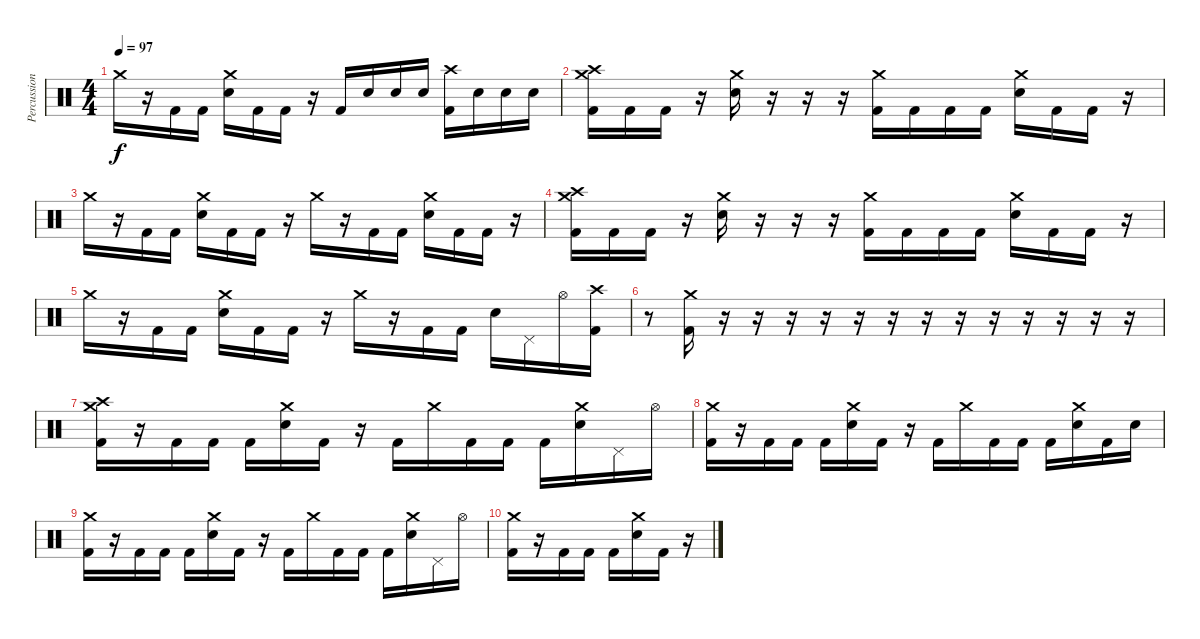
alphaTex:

\track ("Percussion" "Percussion") {instrument percussion}
\staff {score}
\articulation defaults
\ts (4 4)
\tempo 97
\clef neutral
\ks c "Crash medium (hit)".16{dy f}
r.16 "Kick (hit) 2".16 "Kick (hit) 2".16 ("Crash medium (hit)" "Snare (hit) 2").16 "Kick (hit) 2".16 "Kick (hit) 2".16 r.16 "Kick (hit) 2".16 "Snare (hit) 2".16 "Snare (hit) 2".16 "Snare (hit) 2".16 ("Crash high (hit)" "Kick (hit) 2").16 "Snare (hit) 2".16 "Snare (hit) 2".16 "Snare (hit) 2".16 |
("Crash medium (hit)" "Crash high (hit)" "Kick (hit) 2").16 "Kick (hit) 2".16 "Kick (hit) 2".16 r.16 ("Crash medium (hit)" "Snare (hit) 2").16 r.16 r.16 r.16 ("Crash medium (hit)" "Kick (hit) 2").16 "Kick (hit) 2".16 "Kick (hit) 2".16 "Kick (hit) 2".16 ("Crash medium (hit)" "Snare (hit) 2").16 "Kick (hit) 2".16 "Kick (hit) 2".16 r.16 |
"Crash medium (hit)".16 r.16 "Kick (hit) 2".16 "Kick (hit) 2".16 ("Crash medium (hit)" "Snare (hit) 2").16 "Kick (hit) 2".16 "Kick (hit) 2".16 r.16 "Crash medium (hit)".16 r.16 "Kick (hit) 2".16 "Kick (hit) 2".16 ("Crash medium (hit)" "Snare (hit) 2").16 "Kick (hit) 2".16 "Kick (hit) 2".16 r.16 |
("Crash medium (hit)" "Crash high (hit)" "Kick (hit) 2").16 "Kick (hit) 2".16 "Kick (hit) 2".16 r.16 ("Crash medium (hit)" "Snare (hit) 2").16 r.16 r.16 r.16 ("Crash medium (hit)" "Kick (hit) 2").16 "Kick (hit) 2".16 "Kick (hit) 2".16 "Kick (hit) 2".16 ("Crash medium (hit)" "Snare (hit) 2").16 "Kick (hit) 2".16 "Kick (hit) 2".16 r.16 |
"Crash medium (hit)".16 r.16 "Kick (hit) 2".16 "Kick (hit) 2".16 ("Crash medium (hit)" "Snare (hit) 2").16 "Kick (hit) 2".16 "Kick (hit) 2".16 r.16 "Crash medium (hit)".16 r.16 "Kick (hit) 2".16 "Kick (hit) 2".16 "Snare (hit) 2".16 "Pedal Hi-Hat (hit)".16 "Hi-Hat (open)".16 ("Crash high (hit)" "Kick (hit) 2").16 |
r.8 ("Crash medium (hit)" "Kick (hit) 2").16 r.16 r.16 r.16 r.16 r.16 r.16 r.16 r.16 r.16 r.16 r.16 r.16 r.16 |
("Crash medium (hit)" "Crash high (hit)" "Kick (hit) 2").16 r.16 "Kick (hit) 2".16 "Kick (hit) 2".16 "Kick (hit) 2".16 ("Crash medium (hit)" "Snare (hit) 2").16 "Kick (hit) 2".16 r.16 "Kick (hit) 2".16 "Crash medium (hit)".16 "Kick (hit) 2".16 "Kick (hit) 2".16 "Kick (hit) 2".16 ("Crash medium (hit)" "Snare (hit) 2").16 "Pedal Hi-Hat (hit)".16 "Hi-Hat (open)".16 |
("Crash medium (hit)" "Kick (hit) 2").16 r.16 "Kick (hit) 2".16 "Kick (hit) 2".16 "Kick (hit) 2".16 ("Crash medium (hit)" "Snare (hit) 2").16 "Kick (hit) 2".16 r.16 "Kick (hit) 2".16 "Crash medium (hit)".16 "Kick (hit) 2".16 "Kick (hit) 2".16 "Kick (hit) 2".16 ("Crash medium (hit)" "Snare (hit) 2").16 "Kick (hit) 2".16 "Snare (hit) 2".16 |
("Crash medium (hit)" "Kick (hit) 2").16 r.16 "Kick (hit) 2".16 "Kick (hit) 2".16 "Kick (hit) 2".16 ("Crash medium (hit)" "Snare (hit) 2").16 "Kick (hit) 2".16 r.16 "Kick (hit) 2".16 "Crash medium (hit)".16 "Kick (hit) 2".16 "Kick (hit) 2".16 "Kick (hit) 2".16 ("Crash medium (hit)" "Snare (hit) 2").16 "Pedal Hi-Hat (hit)".16 "Hi-Hat (open)".16 |
("Crash medium (hit)" "Kick (hit) 2").16 r.16 "Kick (hit) 2".16 "Kick (hit) 2".16 "Kick (hit) 2".16 ("Crash medium (hit)" "Snare (hit) 2").16 "Kick (hit) 2".16 r.16
